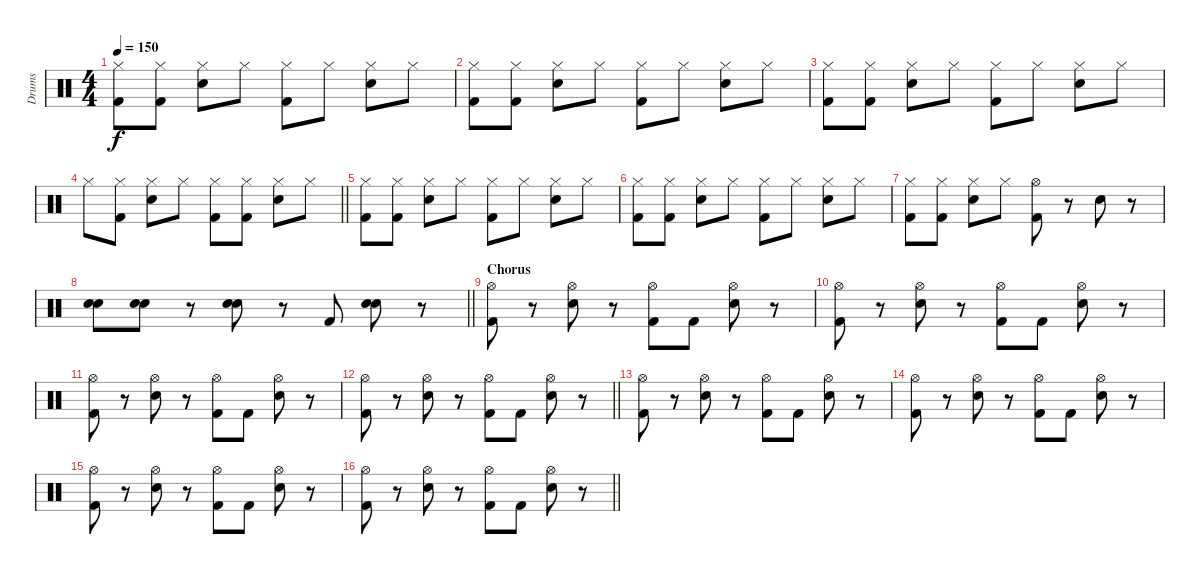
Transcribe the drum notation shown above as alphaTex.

\track ("Drums" "Drums") {instrument percussion}
\staff {score}
\articulation defaults
\ts (4 4)
\tempo 150
\clef neutral
\ks c
("Hi-Hat (closed)" "Kick (hit) 2").8{dy f} ("Hi-Hat (closed)" "Kick (hit) 2").8 ("Hi-Hat (closed)" "Snare (hit) 2").8 "Hi-Hat (closed)".8 ("Hi-Hat (closed)" "Kick (hit) 2").8 "Hi-Hat (closed)".8 ("Hi-Hat (closed)" "Snare (hit) 2").8 "Hi-Hat (closed)".8 |
("Hi-Hat (closed)" "Kick (hit) 2").8 ("Hi-Hat (closed)" "Kick (hit) 2").8 ("Hi-Hat (closed)" "Snare (hit) 2").8 "Hi-Hat (closed)".8 ("Hi-Hat (closed)" "Kick (hit) 2").8 "Hi-Hat (closed)".8 ("Hi-Hat (closed)" "Snare (hit) 2").8 "Hi-Hat (closed)".8 |
("Hi-Hat (closed)" "Kick (hit) 2").8 ("Hi-Hat (closed)" "Kick (hit) 2").8 ("Hi-Hat (closed)" "Snare (hit) 2").8 "Hi-Hat (closed)".8 ("Hi-Hat (closed)" "Kick (hit) 2").8 "Hi-Hat (closed)".8 ("Hi-Hat (closed)" "Snare (hit) 2").8 "Hi-Hat (closed)".8 |
\barLineRight lightlight "Hi-Hat (closed)".8
("Hi-Hat (closed)" "Kick (hit) 2").8 ("Hi-Hat (closed)" "Snare (hit) 2").8 "Hi-Hat (closed)".8 ("Hi-Hat (closed)" "Kick (hit) 2").8 ("Hi-Hat (closed)" "Kick (hit) 2").8 ("Hi-Hat (closed)" "Snare (hit) 2").8 "Hi-Hat (closed)".8 |
("Hi-Hat (closed)" "Kick (hit) 2").8 ("Hi-Hat (closed)" "Kick (hit) 2").8 ("Hi-Hat (closed)" "Snare (hit) 2").8 "Hi-Hat (closed)".8 ("Hi-Hat (closed)" "Kick (hit) 2").8 "Hi-Hat (closed)".8 ("Hi-Hat (closed)" "Snare (hit) 2").8 "Hi-Hat (closed)".8 |
("Hi-Hat (closed)" "Kick (hit) 2").8 ("Hi-Hat (closed)" "Kick (hit) 2").8 ("Hi-Hat (closed)" "Snare (hit) 2").8 "Hi-Hat (closed)".8 ("Hi-Hat (closed)" "Kick (hit) 2").8 "Hi-Hat (closed)".8 ("Hi-Hat (closed)" "Snare (hit) 2").8 "Hi-Hat (closed)".8 |
("Hi-Hat (closed)" "Kick (hit) 2").8 ("Hi-Hat (closed)" "Kick (hit) 2").8 ("Hi-Hat (closed)" "Snare (hit) 2").8 "Hi-Hat (closed)".8 ("Hi-Hat (open)" "Kick (hit) 2").8 r.8 "Snare (hit) 2".8 r.8 |
\barLineRight lightlight
("Electric Snare (hit)" "Snare (hit) 2").8 ("Electric Snare (hit)" "Snare (hit) 2").8 r.8 ("Electric Snare (hit)" "Snare (hit) 2").8 r.8 "Kick (hit) 2".8 ("Electric Snare (hit)" "Snare (hit) 2").8 r.8 |
\section ("" "Chorus")
("Hi-Hat (open)" "Kick (hit) 2").8 r.8 ("Hi-Hat (open)" "Snare (hit) 2").8 r.8 ("Hi-Hat (open)" "Kick (hit) 2").8 "Kick (hit) 2".8 ("Hi-Hat (open)" "Snare (hit) 2").8 r.8 |
("Hi-Hat (open)" "Kick (hit) 2").8 r.8 ("Hi-Hat (open)" "Snare (hit) 2").8 r.8 ("Hi-Hat (open)" "Kick (hit) 2").8 "Kick (hit) 2".8 ("Hi-Hat (open)" "Snare (hit) 2").8 r.8 |
("Hi-Hat (open)" "Kick (hit) 2").8 r.8 ("Hi-Hat (open)" "Snare (hit) 2").8 r.8 ("Hi-Hat (open)" "Kick (hit) 2").8 "Kick (hit) 2".8 ("Hi-Hat (open)" "Snare (hit) 2").8 r.8 |
\barLineRight lightlight
("Hi-Hat (open)" "Kick (hit) 2").8 r.8 ("Hi-Hat (open)" "Snare (hit) 2").8 r.8 ("Hi-Hat (open)" "Kick (hit) 2").8 "Kick (hit) 2".8 ("Hi-Hat (open)" "Snare (hit) 2").8 r.8 |
("Hi-Hat (open)" "Kick (hit) 2").8 r.8 ("Hi-Hat (open)" "Snare (hit) 2").8 r.8 ("Hi-Hat (open)" "Kick (hit) 2").8 "Kick (hit) 2".8 ("Hi-Hat (open)" "Snare (hit) 2").8 r.8 |
("Hi-Hat (open)" "Kick (hit) 2").8 r.8 ("Hi-Hat (open)" "Snare (hit) 2").8 r.8 ("Hi-Hat (open)" "Kick (hit) 2").8 "Kick (hit) 2".8 ("Hi-Hat (open)" "Snare (hit) 2").8 r.8 |
("Hi-Hat (open)" "Kick (hit) 2").8 r.8 ("Hi-Hat (open)" "Snare (hit) 2").8 r.8 ("Hi-Hat (open)" "Kick (hit) 2").8 "Kick (hit) 2".8 ("Hi-Hat (open)" "Snare (hit) 2").8 r.8 |
\barLineRight lightlight
("Hi-Hat (open)" "Kick (hit) 2").8 r.8 ("Hi-Hat (open)" "Snare (hit) 2").8 r.8 ("Hi-Hat (open)" "Kick (hit) 2").8 "Kick (hit) 2".8 ("Hi-Hat (open)" "Snare (hit) 2").8 r.8
